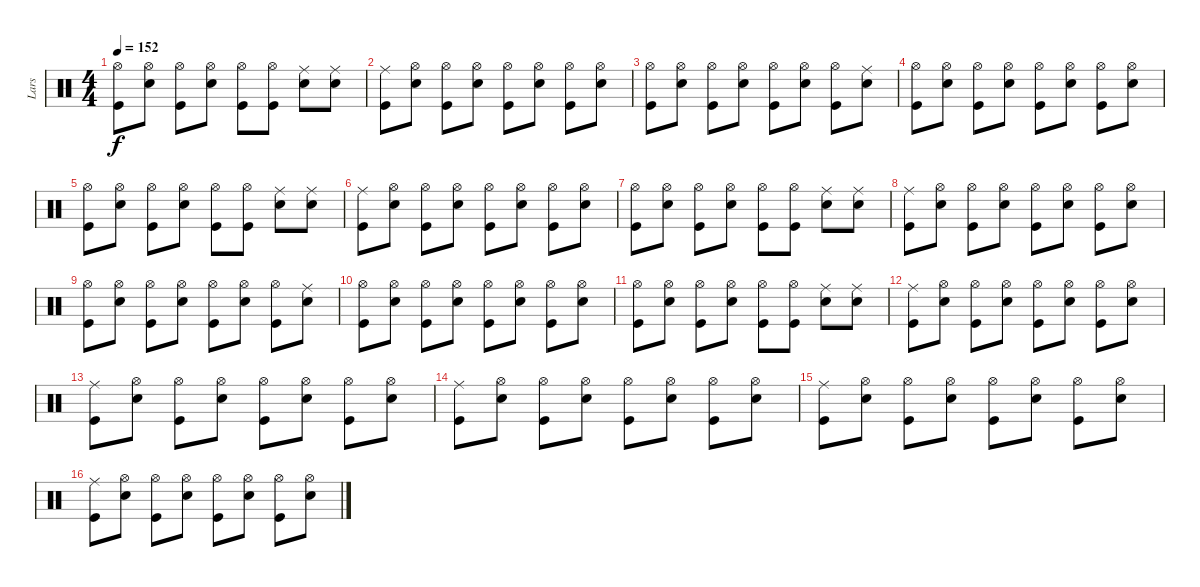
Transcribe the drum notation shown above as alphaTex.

\track ("Lars" "Lars") {instrument percussion}
\staff {score}
\articulation defaults
\ts (4 4)
\tempo 152
\clef neutral
\ks c
("Hi-Hat (open)" "Kick (hit)").8{dy f} ("Hi-Hat (open)" "Snare (hit) 2").8 ("Hi-Hat (open)" "Kick (hit)").8 ("Hi-Hat (open)" "Snare (hit) 2").8 ("Hi-Hat (open)" "Kick (hit)").8 ("Hi-Hat (open)" "Kick (hit)").8 ("Ride (middle)" "Snare (hit) 2").8 ("Ride (middle)" "Snare (hit) 2").8 |
("Ride (middle)" "Kick (hit)").8 ("Hi-Hat (open)" "Snare (hit) 2").8 ("Hi-Hat (open)" "Kick (hit)").8 ("Hi-Hat (open)" "Snare (hit) 2").8 ("Hi-Hat (open)" "Kick (hit)").8 ("Hi-Hat (open)" "Snare (hit) 2").8 ("Hi-Hat (open)" "Kick (hit)").8 ("Hi-Hat (open)" "Snare (hit) 2").8 |
("Hi-Hat (open)" "Kick (hit)").8 ("Hi-Hat (open)" "Snare (hit) 2").8 ("Hi-Hat (open)" "Kick (hit)").8 ("Hi-Hat (open)" "Snare (hit) 2").8 ("Hi-Hat (open)" "Kick (hit)").8 ("Hi-Hat (open)" "Snare (hit) 2").8 ("Hi-Hat (open)" "Kick (hit)").8 ("Ride (middle)" "Snare (hit) 2").8 |
("Hi-Hat (open)" "Kick (hit)").8 ("Hi-Hat (open)" "Snare (hit) 2").8 ("Hi-Hat (open)" "Kick (hit)").8 ("Hi-Hat (open)" "Snare (hit) 2").8 ("Hi-Hat (open)" "Kick (hit)").8 ("Hi-Hat (open)" "Snare (hit) 2").8 ("Hi-Hat (open)" "Kick (hit)").8 ("Hi-Hat (open)" "Snare (hit) 2").8 |
("Hi-Hat (open)" "Kick (hit)").8 ("Hi-Hat (open)" "Snare (hit) 2").8 ("Hi-Hat (open)" "Kick (hit)").8 ("Hi-Hat (open)" "Snare (hit) 2").8 ("Hi-Hat (open)" "Kick (hit)").8 ("Hi-Hat (open)" "Kick (hit)").8 ("Ride (middle)" "Snare (hit) 2").8 ("Ride (middle)" "Snare (hit) 2").8 |
("Ride (middle)" "Kick (hit)").8 ("Hi-Hat (open)" "Snare (hit) 2").8 ("Hi-Hat (open)" "Kick (hit)").8 ("Hi-Hat (open)" "Snare (hit) 2").8 ("Hi-Hat (open)" "Kick (hit)").8 ("Hi-Hat (open)" "Snare (hit) 2").8 ("Hi-Hat (open)" "Kick (hit)").8 ("Hi-Hat (open)" "Snare (hit) 2").8 |
("Hi-Hat (open)" "Kick (hit)").8 ("Hi-Hat (open)" "Snare (hit) 2").8 ("Hi-Hat (open)" "Kick (hit)").8 ("Hi-Hat (open)" "Snare (hit) 2").8 ("Hi-Hat (open)" "Kick (hit)").8 ("Hi-Hat (open)" "Kick (hit)").8 ("Ride (middle)" "Snare (hit) 2").8 ("Ride (middle)" "Snare (hit) 2").8 |
("Ride (middle)" "Kick (hit)").8 ("Hi-Hat (open)" "Snare (hit) 2").8 ("Hi-Hat (open)" "Kick (hit)").8 ("Hi-Hat (open)" "Snare (hit) 2").8 ("Hi-Hat (open)" "Kick (hit)").8 ("Hi-Hat (open)" "Snare (hit) 2").8 ("Hi-Hat (open)" "Kick (hit)").8 ("Hi-Hat (open)" "Snare (hit) 2").8 |
("Hi-Hat (open)" "Kick (hit)").8 ("Hi-Hat (open)" "Snare (hit) 2").8 ("Hi-Hat (open)" "Kick (hit)").8 ("Hi-Hat (open)" "Snare (hit) 2").8 ("Hi-Hat (open)" "Kick (hit)").8 ("Hi-Hat (open)" "Snare (hit) 2").8 ("Hi-Hat (open)" "Kick (hit)").8 ("Ride (middle)" "Snare (hit) 2").8 |
("Hi-Hat (open)" "Kick (hit)").8 ("Hi-Hat (open)" "Snare (hit) 2").8 ("Hi-Hat (open)" "Kick (hit)").8 ("Hi-Hat (open)" "Snare (hit) 2").8 ("Hi-Hat (open)" "Kick (hit)").8 ("Hi-Hat (open)" "Snare (hit) 2").8 ("Hi-Hat (open)" "Kick (hit)").8 ("Hi-Hat (open)" "Snare (hit) 2").8 |
("Hi-Hat (open)" "Kick (hit)").8 ("Hi-Hat (open)" "Snare (hit) 2").8 ("Hi-Hat (open)" "Kick (hit)").8 ("Hi-Hat (open)" "Snare (hit) 2").8 ("Hi-Hat (open)" "Kick (hit)").8 ("Hi-Hat (open)" "Kick (hit)").8 ("Ride (middle)" "Snare (hit) 2").8 ("Ride (middle)" "Snare (hit) 2").8 |
("Ride (middle)" "Kick (hit)").8 ("Hi-Hat (open)" "Snare (hit) 2").8 ("Hi-Hat (open)" "Kick (hit)").8 ("Hi-Hat (open)" "Snare (hit) 2").8 ("Hi-Hat (open)" "Kick (hit)").8 ("Hi-Hat (open)" "Snare (hit) 2").8 ("Hi-Hat (open)" "Kick (hit)").8 ("Hi-Hat (open)" "Snare (hit) 2").8 |
("Ride (middle)" "Kick (hit)").8 ("Hi-Hat (open)" "Snare (hit) 2").8 ("Hi-Hat (open)" "Kick (hit)").8 ("Hi-Hat (open)" "Snare (hit) 2").8 ("Hi-Hat (open)" "Kick (hit)").8 ("Hi-Hat (open)" "Snare (hit) 2").8 ("Hi-Hat (open)" "Kick (hit)").8 ("Hi-Hat (open)" "Snare (hit) 2").8 |
("Ride (middle)" "Kick (hit)").8 ("Hi-Hat (open)" "Snare (hit) 2").8 ("Hi-Hat (open)" "Kick (hit)").8 ("Hi-Hat (open)" "Snare (hit) 2").8 ("Hi-Hat (open)" "Kick (hit)").8 ("Hi-Hat (open)" "Snare (hit) 2").8 ("Hi-Hat (open)" "Kick (hit)").8 ("Hi-Hat (open)" "Snare (hit) 2").8 |
("Ride (middle)" "Kick (hit)").8 ("Hi-Hat (open)" "Snare (hit) 2").8 ("Hi-Hat (open)" "Kick (hit)").8 ("Hi-Hat (open)" "Snare (hit) 2").8 ("Hi-Hat (open)" "Kick (hit)").8 ("Hi-Hat (open)" "Snare (hit) 2").8 ("Hi-Hat (open)" "Kick (hit)").8 ("Hi-Hat (open)" "Snare (hit) 2").8 |
("Ride (middle)" "Kick (hit)").8 ("Hi-Hat (open)" "Snare (hit) 2").8 ("Hi-Hat (open)" "Kick (hit)").8 ("Hi-Hat (open)" "Snare (hit) 2").8 ("Hi-Hat (open)" "Kick (hit)").8 ("Hi-Hat (open)" "Snare (hit) 2").8 ("Hi-Hat (open)" "Kick (hit)").8 ("Hi-Hat (open)" "Snare (hit) 2").8
